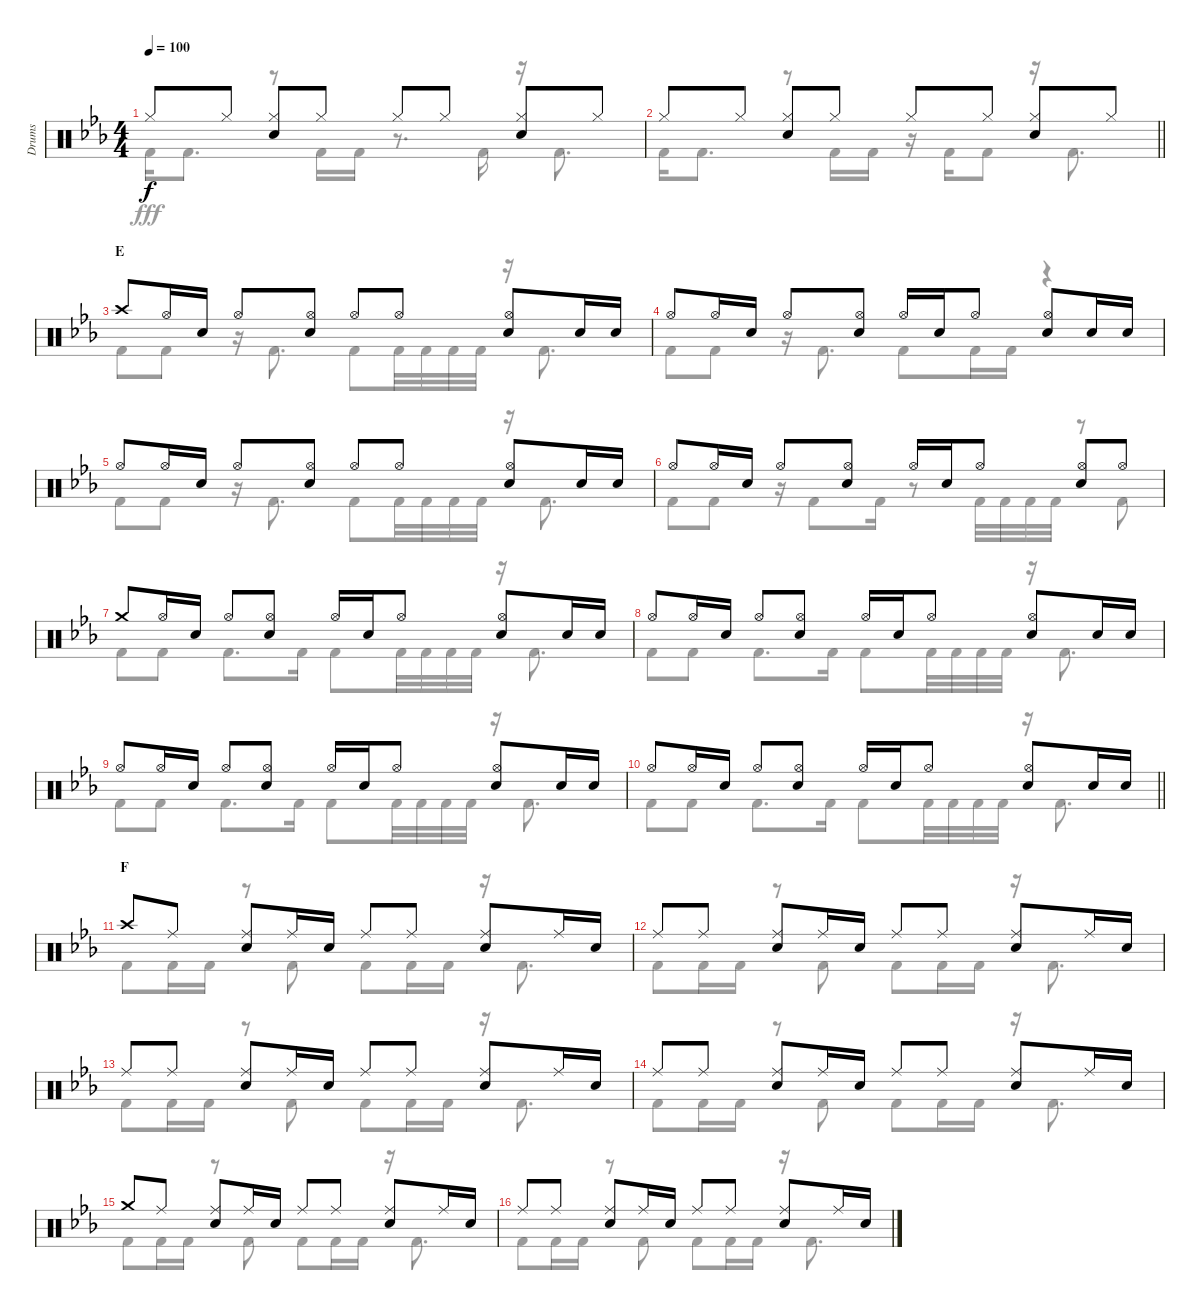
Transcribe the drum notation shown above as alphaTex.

\track ("Drums" "Drums") {instrument percussion}
\staff {score}
\articulation defaults
\voice
\ts (4 4)
\tempo 100
\clef neutral
\ks eb "Hi-Hat (closed)".8{dy f} "Hi-Hat (closed)".8
("Hi-Hat (closed)" "Snare (hit) 2").8 "Hi-Hat (closed)".8 "Hi-Hat (closed)".8 "Hi-Hat (closed)".8 ("Hi-Hat (closed)" "Snare (hit) 2").8 "Hi-Hat (closed)".8 |
\barLineRight lightlight "Hi-Hat (closed)".8 "Hi-Hat (closed)".8
("Hi-Hat (closed)" "Snare (hit) 2").8 "Hi-Hat (closed)".8 "Hi-Hat (closed)".8 "Hi-Hat (closed)".8 ("Hi-Hat (closed)" "Snare (hit) 2").8 "Hi-Hat (closed)".8 |
\section ("" "E")
"Crash high (hit)".8 "Hi-Hat (open)".16 "Snare (hit) 2".16 "Hi-Hat (open)".8 ("Hi-Hat (open)" "Snare (hit) 2").8 "Hi-Hat (open)".8 "Hi-Hat (open)".8 ("Hi-Hat (open)" "Snare (hit) 2").8 "Snare (hit) 2".16 "Snare (hit) 2".16 |
"Hi-Hat (open)".8 "Hi-Hat (open)".16 "Snare (hit) 2".16 "Hi-Hat (open)".8 ("Hi-Hat (open)" "Snare (hit) 2").8 "Hi-Hat (open)".16 "Snare (hit) 2".16 "Hi-Hat (open)".8 ("Hi-Hat (open)" "Snare (hit) 2").8 "Snare (hit) 2".16 "Snare (hit) 2".16 |
"Hi-Hat (open)".8 "Hi-Hat (open)".16 "Snare (hit) 2".16 "Hi-Hat (open)".8 ("Hi-Hat (open)" "Snare (hit) 2").8 "Hi-Hat (open)".8 "Hi-Hat (open)".8 ("Hi-Hat (open)" "Snare (hit) 2").8 "Snare (hit) 2".16 "Snare (hit) 2".16 |
"Hi-Hat (open)".8 "Hi-Hat (open)".16 "Snare (hit) 2".16 "Hi-Hat (open)".8 ("Hi-Hat (open)" "Snare (hit) 2").8 "Hi-Hat (open)".16 "Snare (hit) 2".16 "Hi-Hat (open)".8 ("Hi-Hat (open)" "Snare (hit) 2").8 "Hi-Hat (open)".8 |
"Crash medium (hit)".8 "Hi-Hat (open)".16 "Snare (hit) 2".16 "Hi-Hat (open)".8 ("Hi-Hat (open)" "Snare (hit) 2").8 "Hi-Hat (open)".16 "Snare (hit) 2".16 "Hi-Hat (open)".8 ("Hi-Hat (open)" "Snare (hit) 2").8 "Snare (hit) 2".16 "Snare (hit) 2".16 |
"Hi-Hat (open)".8 "Hi-Hat (open)".16 "Snare (hit) 2".16 "Hi-Hat (open)".8 ("Hi-Hat (open)" "Snare (hit) 2").8 "Hi-Hat (open)".16 "Snare (hit) 2".16 "Hi-Hat (open)".8 ("Hi-Hat (open)" "Snare (hit) 2").8 "Snare (hit) 2".16 "Snare (hit) 2".16 |
"Hi-Hat (open)".8 "Hi-Hat (open)".16 "Snare (hit) 2".16 "Hi-Hat (open)".8 ("Hi-Hat (open)" "Snare (hit) 2").8 "Hi-Hat (open)".16 "Snare (hit) 2".16 "Hi-Hat (open)".8 ("Hi-Hat (open)" "Snare (hit) 2").8 "Snare (hit) 2".16 "Snare (hit) 2".16 |
\barLineRight lightlight "Hi-Hat (open)".8 "Hi-Hat (open)".16 "Snare (hit) 2".16 "Hi-Hat (open)".8
("Hi-Hat (open)" "Snare (hit) 2").8 "Hi-Hat (open)".16 "Snare (hit) 2".16 "Hi-Hat (open)".8 ("Hi-Hat (open)" "Snare (hit) 2").8 "Snare (hit) 2".16 "Snare (hit) 2".16 |
\section ("" "F")
"Crash high (hit)".8 "Ride (middle)".8 ("Ride (middle)" "Snare (hit) 2").8 "Ride (middle)".16 "Snare (hit) 2".16 "Ride (middle)".8 "Ride (middle)".8 ("Ride (middle)" "Snare (hit) 2").8 "Ride (middle)".16 "Snare (hit) 2".16 |
"Ride (middle)".8 "Ride (middle)".8 ("Ride (middle)" "Snare (hit) 2").8 "Ride (middle)".16 "Snare (hit) 2".16 "Ride (middle)".8 "Ride (middle)".8 ("Ride (middle)" "Snare (hit) 2").8 "Ride (middle)".16 "Snare (hit) 2".16 |
"Ride (middle)".8 "Ride (middle)".8 ("Ride (middle)" "Snare (hit) 2").8 "Ride (middle)".16 "Snare (hit) 2".16 "Ride (middle)".8 "Ride (middle)".8 ("Ride (middle)" "Snare (hit) 2").8 "Ride (middle)".16 "Snare (hit) 2".16 |
"Ride (middle)".8 "Ride (middle)".8 ("Ride (middle)" "Snare (hit) 2").8 "Ride (middle)".16 "Snare (hit) 2".16 "Ride (middle)".8 "Ride (middle)".8 ("Ride (middle)" "Snare (hit) 2").8 "Ride (middle)".16 "Snare (hit) 2".16 |
"Crash medium (hit)".8 "Ride (middle)".8 ("Ride (middle)" "Snare (hit) 2").8 "Ride (middle)".16 "Snare (hit) 2".16 "Ride (middle)".8 "Ride (middle)".8 ("Ride (middle)" "Snare (hit) 2").8 "Ride (middle)".16 "Snare (hit) 2".16 |
"Ride (middle)".8 "Ride (middle)".8 ("Ride (middle)" "Snare (hit) 2").8 "Ride (middle)".16 "Snare (hit) 2".16 "Ride (middle)".8 "Ride (middle)".8 ("Ride (middle)" "Snare (hit) 2").8 "Ride (middle)".16 "Snare (hit) 2".16
\voice
\clef neutral
\ottava regular
\simile none
\ks eb "Kick (hit) 2".16{dy fff} "Kick (hit) 2".8{d}
r.8 "Kick (hit) 2".16 "Kick (hit) 2".16 r.8{d} "Kick (hit) 2".16 r.16 "Kick (hit) 2".8{d} |
\barLineRight lightlight "Kick (hit) 2".16 "Kick (hit) 2".8{d}
r.8 "Kick (hit) 2".16 "Kick (hit) 2".16 r.16 "Kick (hit) 2".16 "Kick (hit) 2".8 r.16 "Kick (hit) 2".8{d} |
"Kick (hit) 2".8 "Kick (hit) 2".8 r.16 "Kick (hit) 2".8{d} "Kick (hit) 2".8 "Kick (hit) 2".32 "Kick (hit) 2".32 "Kick (hit) 2".32 "Kick (hit) 2".32 r.16 "Kick (hit) 2".8{d} |
"Kick (hit) 2".8 "Kick (hit) 2".8 r.16 "Kick (hit) 2".8{d} "Kick (hit) 2".8 "Kick (hit) 2".16 "Kick (hit) 2".16 r.4 |
"Kick (hit) 2".8 "Kick (hit) 2".8 r.16 "Kick (hit) 2".8{d} "Kick (hit) 2".8 "Kick (hit) 2".32 "Kick (hit) 2".32 "Kick (hit) 2".32 "Kick (hit) 2".32 r.16 "Kick (hit) 2".8{d} |
"Kick (hit) 2".8 "Kick (hit) 2".8 r.16 "Kick (hit) 2".8 "Kick (hit) 2".16 r.8 "Kick (hit) 2".32 "Kick (hit) 2".32 "Kick (hit) 2".32 "Kick (hit) 2".32 r.8 "Kick (hit) 2".8 |
"Kick (hit) 2".8 "Kick (hit) 2".8 "Kick (hit) 2".8{d} "Kick (hit) 2".16 "Kick (hit) 2".8 "Kick (hit) 2".32 "Kick (hit) 2".32 "Kick (hit) 2".32 "Kick (hit) 2".32 r.16 "Kick (hit) 2".8{d} |
"Kick (hit) 2".8 "Kick (hit) 2".8 "Kick (hit) 2".8{d} "Kick (hit) 2".16 "Kick (hit) 2".8 "Kick (hit) 2".32 "Kick (hit) 2".32 "Kick (hit) 2".32 "Kick (hit) 2".32 r.16 "Kick (hit) 2".8{d} |
"Kick (hit) 2".8 "Kick (hit) 2".8 "Kick (hit) 2".8{d} "Kick (hit) 2".16 "Kick (hit) 2".8 "Kick (hit) 2".32 "Kick (hit) 2".32 "Kick (hit) 2".32 "Kick (hit) 2".32 r.16 "Kick (hit) 2".8{d} |
\barLineRight lightlight "Kick (hit) 2".8 "Kick (hit) 2".8 "Kick (hit) 2".8{d} "Kick (hit) 2".16 "Kick (hit) 2".8 "Kick (hit) 2".32 "Kick (hit) 2".32 "Kick (hit) 2".32 "Kick (hit) 2".32
r.16 "Kick (hit) 2".8{d} |
"Kick (hit) 2".8 "Kick (hit) 2".16 "Kick (hit) 2".16 r.8 "Kick (hit) 2".8 "Kick (hit) 2".8 "Kick (hit) 2".16 "Kick (hit) 2".16 r.16 "Kick (hit) 2".8{d} |
"Kick (hit) 2".8 "Kick (hit) 2".16 "Kick (hit) 2".16 r.8 "Kick (hit) 2".8 "Kick (hit) 2".8 "Kick (hit) 2".16 "Kick (hit) 2".16 r.16 "Kick (hit) 2".8{d} |
"Kick (hit) 2".8 "Kick (hit) 2".16 "Kick (hit) 2".16 r.8 "Kick (hit) 2".8 "Kick (hit) 2".8 "Kick (hit) 2".16 "Kick (hit) 2".16 r.16 "Kick (hit) 2".8{d} |
"Kick (hit) 2".8 "Kick (hit) 2".16 "Kick (hit) 2".16 r.8 "Kick (hit) 2".8 "Kick (hit) 2".8 "Kick (hit) 2".16 "Kick (hit) 2".16 r.16 "Kick (hit) 2".8{d} |
"Kick (hit) 2".8 "Kick (hit) 2".16 "Kick (hit) 2".16 r.8 "Kick (hit) 2".8 "Kick (hit) 2".8 "Kick (hit) 2".16 "Kick (hit) 2".16 r.16 "Kick (hit) 2".8{d} |
"Kick (hit) 2".8 "Kick (hit) 2".16 "Kick (hit) 2".16 r.8 "Kick (hit) 2".8 "Kick (hit) 2".8 "Kick (hit) 2".16 "Kick (hit) 2".16 r.16 "Kick (hit) 2".8{d}
